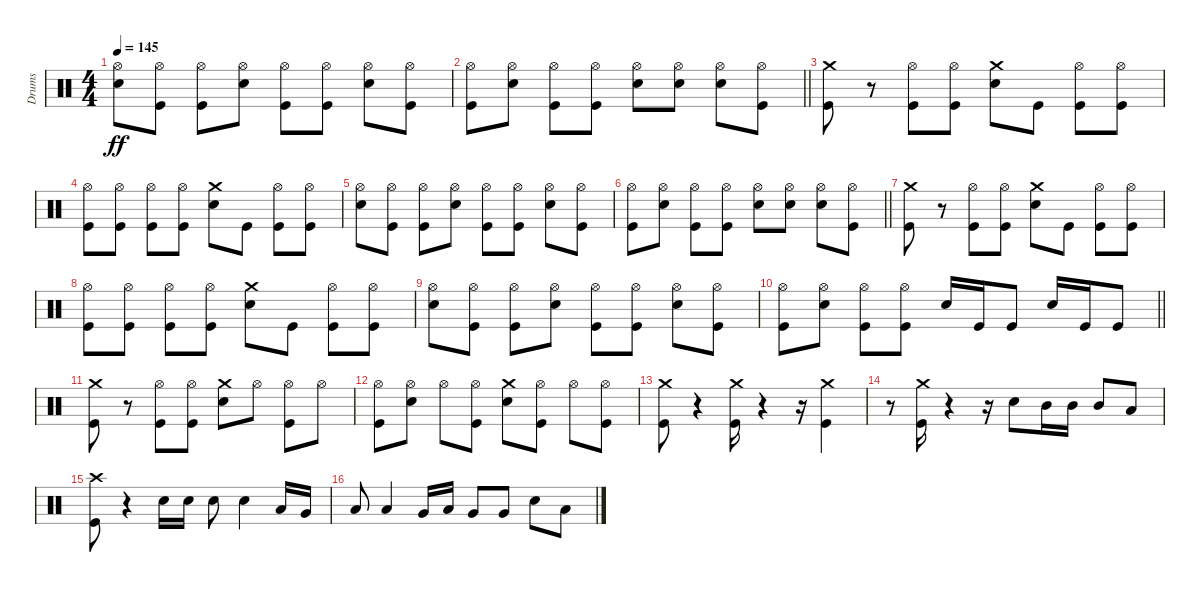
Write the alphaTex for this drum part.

\track ("Drums" "Drums") {instrument percussion}
\staff {score}
\articulation defaults
\ts (4 4)
\tempo 145
\clef neutral
\ks c
("Hi-Hat (open)" "Snare (hit) 2").8{dy ff} ("Hi-Hat (open)" "Kick (hit)").8 ("Hi-Hat (open)" "Kick (hit)").8 ("Snare (hit) 2" "Hi-Hat (open)").8 ("Hi-Hat (open)" "Kick (hit)").8 ("Hi-Hat (open)" "Kick (hit)").8 ("Snare (hit) 2" "Hi-Hat (open)").8 ("Hi-Hat (open)" "Kick (hit)").8 |
\barLineRight lightlight
("Hi-Hat (open)" "Kick (hit)").8 ("Snare (hit) 2" "Hi-Hat (open)").8 ("Hi-Hat (open)" "Kick (hit)").8 ("Hi-Hat (open)" "Kick (hit)").8 ("Hi-Hat (open)" "Snare (hit) 2").8 ("Hi-Hat (open)" "Snare (hit) 2").8 ("Hi-Hat (open)" "Snare (hit) 2").8 ("Hi-Hat (open)" "Kick (hit)").8 |
("Kick (hit)" "Crash medium (hit)").8 r.8 ("Hi-Hat (open)" "Kick (hit)").8 ("Hi-Hat (open)" "Kick (hit)").8 ("Snare (hit) 2" "Crash medium (hit)").8 "Kick (hit)".8 ("Hi-Hat (open)" "Kick (hit)").8 ("Hi-Hat (open)" "Kick (hit)").8 |
("Hi-Hat (open)" "Kick (hit)").8 ("Hi-Hat (open)" "Kick (hit)").8 ("Kick (hit)" "Hi-Hat (open)").8 ("Hi-Hat (open)" "Kick (hit)").8 ("Snare (hit) 2" "Crash medium (hit)").8 "Kick (hit)".8 ("Hi-Hat (open)" "Kick (hit)").8 ("Hi-Hat (open)" "Kick (hit)").8 |
("Hi-Hat (open)" "Snare (hit) 2").8 ("Hi-Hat (open)" "Kick (hit)").8 ("Hi-Hat (open)" "Kick (hit)").8 ("Snare (hit) 2" "Hi-Hat (open)").8 ("Hi-Hat (open)" "Kick (hit)").8 ("Hi-Hat (open)" "Kick (hit)").8 ("Snare (hit) 2" "Hi-Hat (open)").8 ("Hi-Hat (open)" "Kick (hit)").8 |
\barLineRight lightlight
("Hi-Hat (open)" "Kick (hit)").8 ("Snare (hit) 2" "Hi-Hat (open)").8 ("Hi-Hat (open)" "Kick (hit)").8 ("Hi-Hat (open)" "Kick (hit)").8 ("Hi-Hat (open)" "Snare (hit) 2").8 ("Hi-Hat (open)" "Snare (hit) 2").8 ("Hi-Hat (open)" "Snare (hit) 2").8 ("Hi-Hat (open)" "Kick (hit)").8 |
("Kick (hit)" "Crash medium (hit)").8 r.8 ("Hi-Hat (open)" "Kick (hit)").8 ("Hi-Hat (open)" "Kick (hit)").8 ("Snare (hit) 2" "Crash medium (hit)").8 "Kick (hit)".8 ("Hi-Hat (open)" "Kick (hit)").8 ("Hi-Hat (open)" "Kick (hit)").8 |
("Hi-Hat (open)" "Kick (hit)").8 ("Hi-Hat (open)" "Kick (hit)").8 ("Kick (hit)" "Hi-Hat (open)").8 ("Hi-Hat (open)" "Kick (hit)").8 ("Snare (hit) 2" "Crash medium (hit)").8 "Kick (hit)".8 ("Hi-Hat (open)" "Kick (hit)").8 ("Hi-Hat (open)" "Kick (hit)").8 |
("Hi-Hat (open)" "Snare (hit) 2").8 ("Hi-Hat (open)" "Kick (hit)").8 ("Hi-Hat (open)" "Kick (hit)").8 ("Snare (hit) 2" "Hi-Hat (open)").8 ("Hi-Hat (open)" "Kick (hit)").8 ("Hi-Hat (open)" "Kick (hit)").8 ("Snare (hit) 2" "Hi-Hat (open)").8 ("Hi-Hat (open)" "Kick (hit)").8 |
\barLineRight lightlight
("Hi-Hat (open)" "Kick (hit)").8 ("Snare (hit) 2" "Hi-Hat (open)").8 ("Hi-Hat (open)" "Kick (hit)").8 ("Hi-Hat (open)" "Kick (hit)").8 "Snare (hit) 2".16 "Kick (hit)".16 "Kick (hit)".8 "Snare (hit) 2".16 "Kick (hit)".16 "Kick (hit)".8 |
("Crash medium (hit)" "Kick (hit)").8 r.8 ("Hi-Hat (open)" "Kick (hit)").8 ("Hi-Hat (open)" "Kick (hit)").8 ("Snare (hit) 2" "Crash medium (hit)").8 "Hi-Hat (open)".8 ("Hi-Hat (open)" "Kick (hit)").8 "Hi-Hat (open)".8 |
("Kick (hit)" "Hi-Hat (open)").8 ("Hi-Hat (open)" "Snare (hit) 2").8 "Hi-Hat (open)".8 ("Hi-Hat (open)" "Kick (hit)").8 ("Snare (hit) 2" "Crash medium (hit)").8 ("Kick (hit)" "Hi-Hat (open)").8 "Hi-Hat (open)".8 ("Hi-Hat (open)" "Kick (hit)").8 |
("Crash medium (hit)" "Kick (hit)").8 r.4 ("Kick (hit)" "Crash medium (hit)").16 r.4 r.16 ("Kick (hit)" "Crash medium (hit)").4 |
r.8 ("Kick (hit)" "Crash medium (hit)").16 r.4 r.16 "Snare (hit) 2".8 "Mid Tom (hit)".16 "Mid Tom (hit)".16 "Mid Tom (hit)".8 "Low Floor Tom (hit)".8 |
("Kick (hit)" "Crash high (hit)").8 r.4 "Snare (hit) 2".16 "Snare (hit) 2".16 "Snare (hit) 2".8 "Snare (hit) 2".4 "Low Tom (hit)".16 "Very Low Tom (hit)".16 |
"Low Tom (hit)".8 "Low Tom (hit)".4 "Very Low Tom (hit)".16 "Low Floor Tom (hit)".16 "Very Low Tom (hit)".8 "Very Low Tom (hit)".8 "Snare (hit) 2".8 "Low Floor Tom (hit)".8
